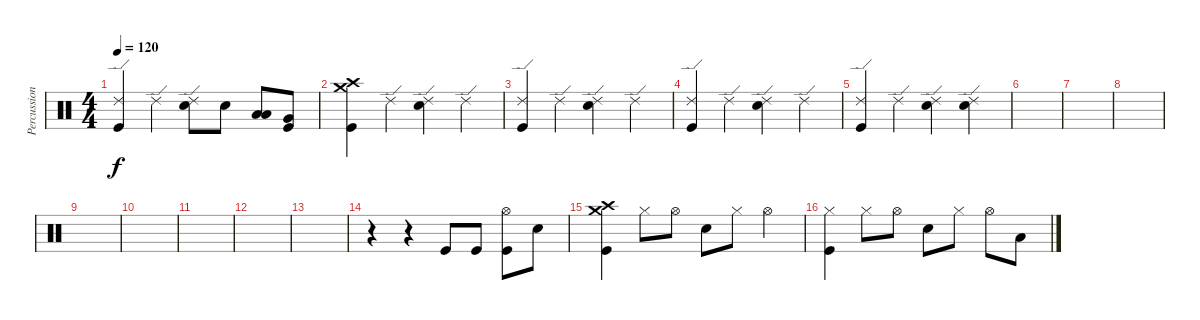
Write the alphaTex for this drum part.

\track ("Percussions" "Percussion") {instrument percussion}
\staff {score}
\articulation defaults
\ts (4 4)
\tempo 120
\clef neutral
\ks c
("Ride (edge) 2" "Kick (hit)").4{dy f} "Ride (edge) 2".4 ("Ride (edge) 2" "Electric Snare (hit)").8 "Electric Snare (hit)".8 ("Low Tom (hit)" "Low Tom (hit)").8{bd 120} ("Very Low Tom (hit)" "Kick (hit)").8 |
("Crash high (hit)" "Crash medium (hit)" "Kick (hit)").4 "Ride (edge) 2".4 ("Ride (edge) 2" "Electric Snare (hit)").4 "Ride (edge) 2".4 |
("Ride (edge) 2" "Kick (hit)").4 "Ride (edge) 2".4 ("Ride (edge) 2" "Electric Snare (hit)").4 "Ride (edge) 2".4 |
("Ride (edge) 2" "Kick (hit)").4 "Ride (edge) 2".4 ("Ride (edge) 2" "Electric Snare (hit)").4 "Ride (edge) 2".4 |
("Ride (edge) 2" "Kick (hit)").4 "Ride (edge) 2".4 ("Ride (edge) 2" "Electric Snare (hit)").4 ("Ride (edge) 2" "Electric Snare (hit)").4 |
|
|
|
|
|
|
|
|
r.4 r.4 "Kick (hit)".8 "Kick (hit)".8 ("Hi-Hat (open)" "Kick (hit)").8 "Electric Snare (hit)".8 |
("Crash medium (hit)" "Crash high (hit)" "Kick (hit)").4 "Hi-Hat (closed)".8 "Hi-Hat (open)".8 "Electric Snare (hit)".8 "Hi-Hat (closed)".8 "Hi-Hat (open)".4 |
("Hi-Hat (closed)" "Kick (hit)").4 "Hi-Hat (closed)".8 "Hi-Hat (open)".8 "Electric Snare (hit)".8 "Hi-Hat (closed)".8 "Hi-Hat (open)".8 "Low Floor Tom (hit)".8
